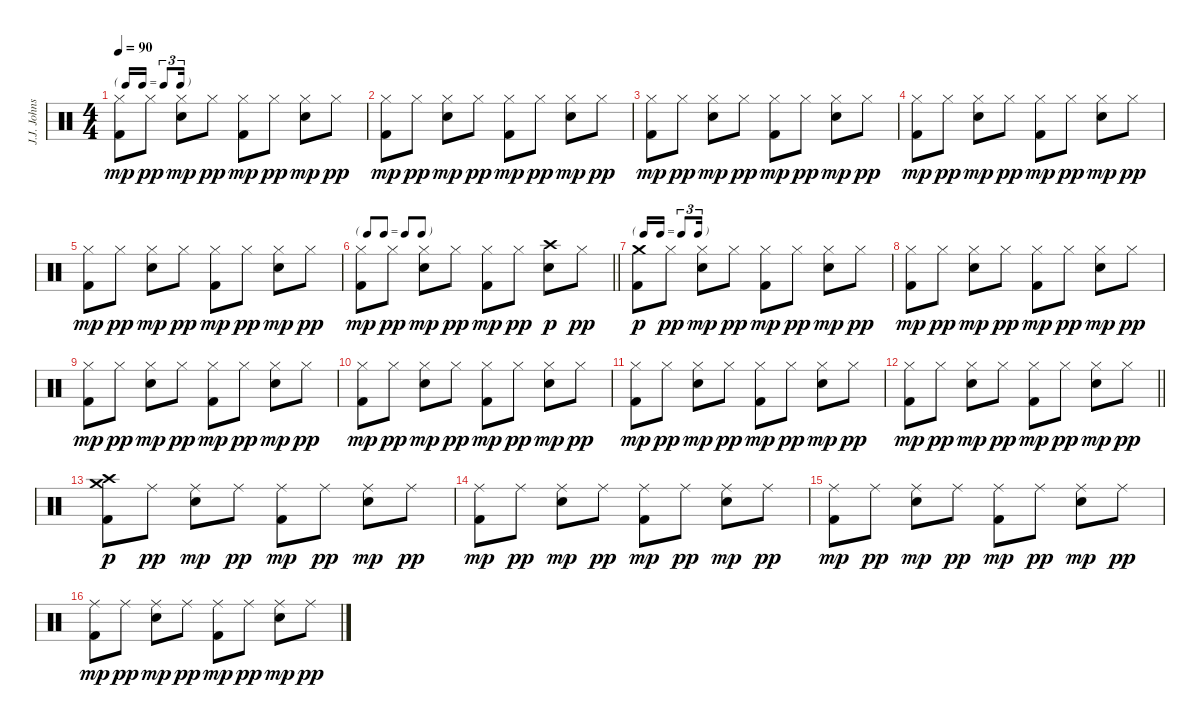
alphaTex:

\track ("J.J. Johnson" "J.J. Johns") {instrument percussion}
\staff {score}
\articulation defaults
\ts (4 4)
\tf triplet16th
\tempo 90
\clef neutral
\ks c
("Hi-Hat (closed)" "Kick (hit) 2").8{dy mp} "Hi-Hat (closed)".8{dy pp} ("Hi-Hat (closed)" "Electric Snare (hit)").8{dy mp} "Hi-Hat (closed)".8{dy pp} ("Hi-Hat (closed)" "Kick (hit) 2").8{dy mp} "Hi-Hat (closed)".8{dy pp} ("Hi-Hat (closed)" "Electric Snare (hit)").8{dy mp} "Hi-Hat (closed)".8{dy pp} |
("Hi-Hat (closed)" "Kick (hit) 2").8{dy mp} "Hi-Hat (closed)".8{dy pp} ("Hi-Hat (closed)" "Electric Snare (hit)").8{dy mp} "Hi-Hat (closed)".8{dy pp} ("Hi-Hat (closed)" "Kick (hit) 2").8{dy mp} "Hi-Hat (closed)".8{dy pp} ("Hi-Hat (closed)" "Electric Snare (hit)").8{dy mp} "Hi-Hat (closed)".8{dy pp} |
("Hi-Hat (closed)" "Kick (hit) 2").8{dy mp} "Hi-Hat (closed)".8{dy pp} ("Hi-Hat (closed)" "Electric Snare (hit)").8{dy mp} "Hi-Hat (closed)".8{dy pp} ("Hi-Hat (closed)" "Kick (hit) 2").8{dy mp} "Hi-Hat (closed)".8{dy pp} ("Hi-Hat (closed)" "Electric Snare (hit)").8{dy mp} "Hi-Hat (closed)".8{dy pp} |
("Hi-Hat (closed)" "Kick (hit) 2").8{dy mp} "Hi-Hat (closed)".8{dy pp} ("Hi-Hat (closed)" "Electric Snare (hit)").8{dy mp} "Hi-Hat (closed)".8{dy pp} ("Hi-Hat (closed)" "Kick (hit) 2").8{dy mp} "Hi-Hat (closed)".8{dy pp} ("Hi-Hat (closed)" "Electric Snare (hit)").8{dy mp} "Hi-Hat (closed)".8{dy pp} |
("Hi-Hat (closed)" "Kick (hit) 2").8{dy mp} "Hi-Hat (closed)".8{dy pp} ("Hi-Hat (closed)" "Electric Snare (hit)").8{dy mp} "Hi-Hat (closed)".8{dy pp} ("Hi-Hat (closed)" "Kick (hit) 2").8{dy mp} "Hi-Hat (closed)".8{dy pp} ("Hi-Hat (closed)" "Electric Snare (hit)").8{dy mp} "Hi-Hat (closed)".8{dy pp} |
\tf none
\barLineRight lightlight
("Hi-Hat (closed)" "Kick (hit) 2").8{dy mp} "Hi-Hat (closed)".8{dy pp} ("Hi-Hat (closed)" "Electric Snare (hit)").8{dy mp} "Hi-Hat (closed)".8{dy pp} ("Hi-Hat (closed)" "Kick (hit) 2").8{dy mp} "Hi-Hat (closed)".8{dy pp} ("Crash high (hit)" "Electric Snare (hit)").8{dy p} "Hi-Hat (closed)".8{dy pp} |
\tf triplet16th
("Crash medium (hit)" "Kick (hit) 2").8{dy p} "Hi-Hat (closed)".8{dy pp} ("Hi-Hat (closed)" "Electric Snare (hit)").8{dy mp} "Hi-Hat (closed)".8{dy pp} ("Hi-Hat (closed)" "Kick (hit) 2").8{dy mp} "Hi-Hat (closed)".8{dy pp} ("Hi-Hat (closed)" "Electric Snare (hit)").8{dy mp} "Hi-Hat (closed)".8{dy pp} |
("Hi-Hat (closed)" "Kick (hit) 2").8{dy mp} "Hi-Hat (closed)".8{dy pp} ("Hi-Hat (closed)" "Electric Snare (hit)").8{dy mp} "Hi-Hat (closed)".8{dy pp} ("Hi-Hat (closed)" "Kick (hit) 2").8{dy mp} "Hi-Hat (closed)".8{dy pp} ("Hi-Hat (closed)" "Electric Snare (hit)").8{dy mp} "Hi-Hat (closed)".8{dy pp} |
("Hi-Hat (closed)" "Kick (hit) 2").8{dy mp} "Hi-Hat (closed)".8{dy pp} ("Hi-Hat (closed)" "Electric Snare (hit)").8{dy mp} "Hi-Hat (closed)".8{dy pp} ("Hi-Hat (closed)" "Kick (hit) 2").8{dy mp} "Hi-Hat (closed)".8{dy pp} ("Hi-Hat (closed)" "Electric Snare (hit)").8{dy mp} "Hi-Hat (closed)".8{dy pp} |
("Hi-Hat (closed)" "Kick (hit) 2").8{dy mp} "Hi-Hat (closed)".8{dy pp} ("Hi-Hat (closed)" "Electric Snare (hit)").8{dy mp} "Hi-Hat (closed)".8{dy pp} ("Hi-Hat (closed)" "Kick (hit) 2").8{dy mp} "Hi-Hat (closed)".8{dy pp} ("Hi-Hat (closed)" "Electric Snare (hit)").8{dy mp} "Hi-Hat (closed)".8{dy pp} |
("Hi-Hat (closed)" "Kick (hit) 2").8{dy mp} "Hi-Hat (closed)".8{dy pp} ("Hi-Hat (closed)" "Electric Snare (hit)").8{dy mp} "Hi-Hat (closed)".8{dy pp} ("Hi-Hat (closed)" "Kick (hit) 2").8{dy mp} "Hi-Hat (closed)".8{dy pp} ("Hi-Hat (closed)" "Electric Snare (hit)").8{dy mp} "Hi-Hat (closed)".8{dy pp} |
\barLineRight lightlight
("Hi-Hat (closed)" "Kick (hit) 2").8{dy mp} "Hi-Hat (closed)".8{dy pp} ("Hi-Hat (closed)" "Electric Snare (hit)").8{dy mp} "Hi-Hat (closed)".8{dy pp} ("Hi-Hat (closed)" "Kick (hit) 2").8{dy mp} "Hi-Hat (closed)".8{dy pp} ("Hi-Hat (closed)" "Electric Snare (hit)").8{dy mp} "Hi-Hat (closed)".8{dy pp} |
("Crash high (hit)" "Crash medium (hit)" "Kick (hit) 2").8{dy p} "Ride (middle)".8{dy pp} ("Ride (middle)" "Electric Snare (hit)").8{dy mp} "Ride (middle)".8{dy pp} ("Ride (middle)" "Kick (hit) 2").8{dy mp} "Ride (middle)".8{dy pp} ("Ride (middle)" "Electric Snare (hit)").8{dy mp} "Ride (middle)".8{dy pp} |
("Ride (middle)" "Kick (hit) 2").8{dy mp} "Ride (middle)".8{dy pp} ("Ride (middle)" "Electric Snare (hit)").8{dy mp} "Ride (middle)".8{dy pp} ("Ride (middle)" "Kick (hit) 2").8{dy mp} "Ride (middle)".8{dy pp} ("Ride (middle)" "Electric Snare (hit)").8{dy mp} "Ride (middle)".8{dy pp} |
("Ride (middle)" "Kick (hit) 2").8{dy mp} "Ride (middle)".8{dy pp} ("Ride (middle)" "Electric Snare (hit)").8{dy mp} "Ride (middle)".8{dy pp} ("Ride (middle)" "Kick (hit) 2").8{dy mp} "Ride (middle)".8{dy pp} ("Ride (middle)" "Electric Snare (hit)").8{dy mp} "Ride (middle)".8{dy pp} |
("Ride (middle)" "Kick (hit) 2").8{dy mp} "Ride (middle)".8{dy pp} ("Ride (middle)" "Electric Snare (hit)").8{dy mp} "Ride (middle)".8{dy pp} ("Ride (middle)" "Kick (hit) 2").8{dy mp} "Ride (middle)".8{dy pp} ("Ride (middle)" "Electric Snare (hit)").8{dy mp} "Ride (middle)".8{dy pp}
